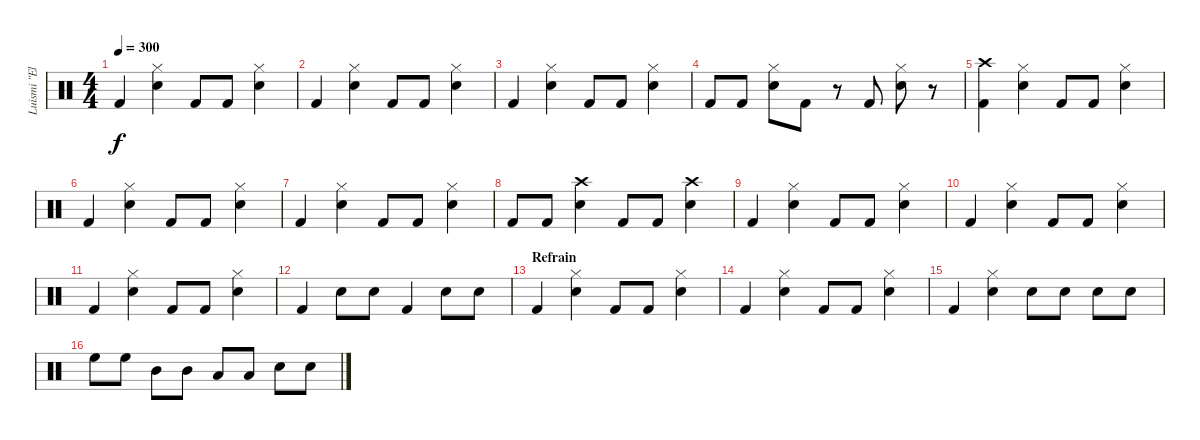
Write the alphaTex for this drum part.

\track ("Luismi \"El Papi\"" "Luismi \"El") {instrument percussion}
\staff {score}
\articulation defaults
\ts (4 4)
\tempo 300
\clef neutral
\ks c "Kick (hit) 2".4{dy f}
("Hi-Hat (closed)" "Snare (hit) 2").4 "Kick (hit) 2".8 "Kick (hit) 2".8 ("Hi-Hat (closed)" "Snare (hit) 2").4 |
"Kick (hit) 2".4 ("Hi-Hat (closed)" "Snare (hit) 2").4 "Kick (hit) 2".8 "Kick (hit) 2".8 ("Hi-Hat (closed)" "Snare (hit) 2").4 |
"Kick (hit) 2".4 ("Hi-Hat (closed)" "Snare (hit) 2").4 "Kick (hit) 2".8 "Kick (hit) 2".8 ("Hi-Hat (closed)" "Snare (hit) 2").4 |
"Kick (hit) 2".8 "Kick (hit) 2".8 ("Hi-Hat (closed)" "Snare (hit) 2").8 "Kick (hit) 2".8 r.8 "Kick (hit) 2".8 ("Hi-Hat (closed)" "Snare (hit) 2").8 r.8 |
("Crash high (hit)" "Kick (hit) 2").4 ("Hi-Hat (closed)" "Snare (hit) 2").4 "Kick (hit) 2".8 "Kick (hit) 2".8 ("Hi-Hat (closed)" "Snare (hit) 2").4 |
"Kick (hit) 2".4 ("Hi-Hat (closed)" "Snare (hit) 2").4 "Kick (hit) 2".8 "Kick (hit) 2".8 ("Hi-Hat (closed)" "Snare (hit) 2").4 |
"Kick (hit) 2".4 ("Hi-Hat (closed)" "Snare (hit) 2").4 "Kick (hit) 2".8 "Kick (hit) 2".8 ("Hi-Hat (closed)" "Snare (hit) 2").4 |
"Kick (hit) 2".8 "Kick (hit) 2".8 ("Crash high (hit)" "Snare (hit) 2").4 "Kick (hit) 2".8 "Kick (hit) 2".8 ("Crash high (hit)" "Snare (hit) 2").4 |
"Kick (hit) 2".4 ("Hi-Hat (closed)" "Snare (hit) 2").4 "Kick (hit) 2".8 "Kick (hit) 2".8 ("Hi-Hat (closed)" "Snare (hit) 2").4 |
"Kick (hit) 2".4 ("Hi-Hat (closed)" "Snare (hit) 2").4 "Kick (hit) 2".8 "Kick (hit) 2".8 ("Hi-Hat (closed)" "Snare (hit) 2").4 |
"Kick (hit) 2".4 ("Hi-Hat (closed)" "Snare (hit) 2").4 "Kick (hit) 2".8 "Kick (hit) 2".8 ("Hi-Hat (closed)" "Snare (hit) 2").4 |
"Kick (hit) 2".4 "Snare (hit) 2".8 "Snare (hit) 2".8 "Kick (hit) 2".4 "Snare (hit) 2".8 "Snare (hit) 2".8 |
\section ("" "Refrain")
"Kick (hit) 2".4 ("Hi-Hat (closed)" "Snare (hit) 2").4 "Kick (hit) 2".8 "Kick (hit) 2".8 ("Hi-Hat (closed)" "Snare (hit) 2").4 |
"Kick (hit) 2".4 ("Hi-Hat (closed)" "Snare (hit) 2").4 "Kick (hit) 2".8 "Kick (hit) 2".8 ("Hi-Hat (closed)" "Snare (hit) 2").4 |
"Kick (hit) 2".4 ("Hi-Hat (closed)" "Snare (hit) 2").4 "Snare (hit) 2".8 "Snare (hit) 2".8 "Snare (hit) 2".8 "Snare (hit) 2".8 |
"High Floor Tom (hit)".8 "High Floor Tom (hit)".8 "Mid Tom (hit)".8 "Mid Tom (hit)".8 "Low Tom (hit)".8 "Low Tom (hit)".8 "Snare (hit) 2".8 "Snare (hit) 2".8
